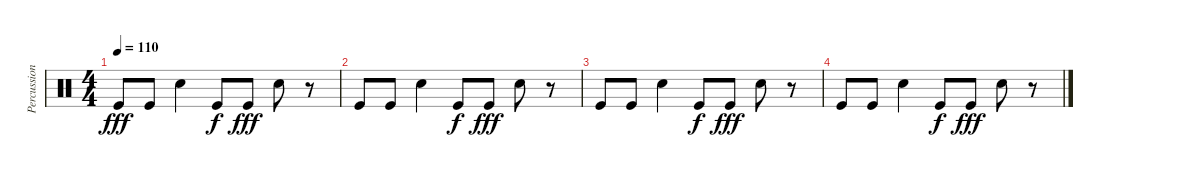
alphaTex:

\track ("Percussion" "Percussion") {instrument percussion}
\staff {score}
\articulation defaults
\ts (4 4)
\tempo 110
\clef neutral
\ks c "Kick (hit)".8{dy fff} "Kick (hit)".8 "Snare (hit) 2".4 "Kick (hit)".8{dy f} "Kick (hit)".8{dy fff} "Snare (hit) 2".8
r.8 |
"Kick (hit)".8 "Kick (hit)".8 "Snare (hit) 2".4 "Kick (hit)".8{dy f} "Kick (hit)".8{dy fff} "Snare (hit) 2".8 r.8 |
"Kick (hit)".8 "Kick (hit)".8 "Snare (hit) 2".4 "Kick (hit)".8{dy f} "Kick (hit)".8{dy fff} "Snare (hit) 2".8 r.8 |
"Kick (hit)".8 "Kick (hit)".8 "Snare (hit) 2".4 "Kick (hit)".8{dy f} "Kick (hit)".8{dy fff} "Snare (hit) 2".8 r.8
